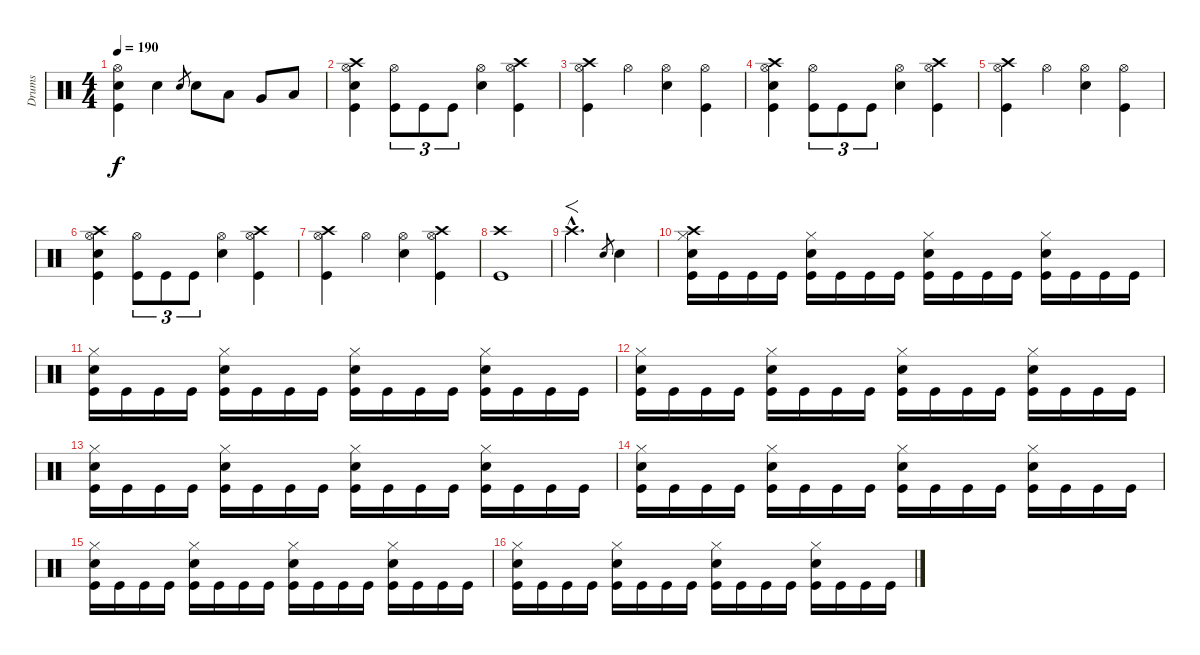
\track ("Drums" "Drums") {instrument percussion}
\staff {score}
\articulation defaults
\ts (4 4)
\tempo 190
\clef neutral
\ks c
("Hi-Hat (open)" "Snare (hit) 2" "Kick (hit)").4{dy f} "Snare (hit) 2".4 "Snare (hit) 2".8{gr} "Snare (hit) 2".8 "Low Tom (hit)".8 "Very Low Tom (hit)".8 "Low Floor Tom (hit)".8 |
("Crash high (hit)" "Hi-Hat (open)" "Snare (hit) 2" "Kick (hit)").4 ("Hi-Hat (open)" "Kick (hit)").8{tu (3 2)} "Kick (hit)".8{tu (3 2)} "Kick (hit)".8{tu (3 2)} ("Hi-Hat (open)" "Snare (hit) 2").4 ("Crash high (hit)" "Hi-Hat (open)" "Kick (hit)").4 |
("Crash high (hit)" "Hi-Hat (open)" "Kick (hit)").4 "Hi-Hat (open)".4 ("Hi-Hat (open)" "Snare (hit) 2").4 ("Hi-Hat (open)" "Kick (hit)").4 |
("Crash high (hit)" "Hi-Hat (open)" "Snare (hit) 2" "Kick (hit)").4 ("Hi-Hat (open)" "Kick (hit)").8{tu (3 2)} "Kick (hit)".8{tu (3 2)} "Kick (hit)".8{tu (3 2)} ("Hi-Hat (open)" "Snare (hit) 2").4 ("Crash high (hit)" "Hi-Hat (open)" "Kick (hit)").4 |
("Crash high (hit)" "Hi-Hat (open)" "Kick (hit)").4 "Hi-Hat (open)".4 ("Hi-Hat (open)" "Snare (hit) 2").4 ("Hi-Hat (open)" "Kick (hit)").4 |
("Crash high (hit)" "Hi-Hat (open)" "Snare (hit) 2" "Kick (hit)").4 ("Hi-Hat (open)" "Kick (hit)").8{tu (3 2)} "Kick (hit)".8{tu (3 2)} "Kick (hit)".8{tu (3 2)} ("Hi-Hat (open)" "Snare (hit) 2").4 ("Crash high (hit)" "Hi-Hat (open)" "Kick (hit)").4 |
("Crash high (hit)" "Hi-Hat (open)" "Kick (hit)").4 "Hi-Hat (open)".4 ("Hi-Hat (open)" "Snare (hit) 2").4 ("Crash high (hit)" "Hi-Hat (open)" "Kick (hit)").4 |
("Crash high (hit)" "Kick (hit)").1 |
"Crash high (hit)"{hac}.2{f d} "Snare (hit) 2".8{gr} "Snare (hit) 2".4 |
("Crash high (hit)" "Hi-Hat (closed)" "Snare (hit) 2" "Kick (hit)").16 "Kick (hit)".16 "Kick (hit)".16 "Kick (hit)".16 ("Hi-Hat (closed)" "Snare (hit) 2" "Kick (hit)").16 "Kick (hit)".16 "Kick (hit)".16 "Kick (hit)".16 ("Hi-Hat (closed)" "Snare (hit) 2" "Kick (hit)").16 "Kick (hit)".16 "Kick (hit)".16 "Kick (hit)".16 ("Hi-Hat (closed)" "Snare (hit) 2" "Kick (hit)").16 "Kick (hit)".16 "Kick (hit)".16 "Kick (hit)".16 |
("Hi-Hat (closed)" "Snare (hit) 2" "Kick (hit)").16 "Kick (hit)".16 "Kick (hit)".16 "Kick (hit)".16 ("Hi-Hat (closed)" "Snare (hit) 2" "Kick (hit)").16 "Kick (hit)".16 "Kick (hit)".16 "Kick (hit)".16 ("Hi-Hat (closed)" "Snare (hit) 2" "Kick (hit)").16 "Kick (hit)".16 "Kick (hit)".16 "Kick (hit)".16 ("Hi-Hat (closed)" "Snare (hit) 2" "Kick (hit)").16 "Kick (hit)".16 "Kick (hit)".16 "Kick (hit)".16 |
("Hi-Hat (closed)" "Snare (hit) 2" "Kick (hit)").16 "Kick (hit)".16 "Kick (hit)".16 "Kick (hit)".16 ("Hi-Hat (closed)" "Snare (hit) 2" "Kick (hit)").16 "Kick (hit)".16 "Kick (hit)".16 "Kick (hit)".16 ("Hi-Hat (closed)" "Snare (hit) 2" "Kick (hit)").16 "Kick (hit)".16 "Kick (hit)".16 "Kick (hit)".16 ("Hi-Hat (closed)" "Snare (hit) 2" "Kick (hit)").16 "Kick (hit)".16 "Kick (hit)".16 "Kick (hit)".16 |
("Hi-Hat (closed)" "Snare (hit) 2" "Kick (hit)").16 "Kick (hit)".16 "Kick (hit)".16 "Kick (hit)".16 ("Hi-Hat (closed)" "Snare (hit) 2" "Kick (hit)").16 "Kick (hit)".16 "Kick (hit)".16 "Kick (hit)".16 ("Hi-Hat (closed)" "Snare (hit) 2" "Kick (hit)").16 "Kick (hit)".16 "Kick (hit)".16 "Kick (hit)".16 ("Hi-Hat (closed)" "Snare (hit) 2" "Kick (hit)").16 "Kick (hit)".16 "Kick (hit)".16 "Kick (hit)".16 |
("Hi-Hat (closed)" "Snare (hit) 2" "Kick (hit)").16 "Kick (hit)".16 "Kick (hit)".16 "Kick (hit)".16 ("Hi-Hat (closed)" "Snare (hit) 2" "Kick (hit)").16 "Kick (hit)".16 "Kick (hit)".16 "Kick (hit)".16 ("Hi-Hat (closed)" "Snare (hit) 2" "Kick (hit)").16 "Kick (hit)".16 "Kick (hit)".16 "Kick (hit)".16 ("Hi-Hat (closed)" "Snare (hit) 2" "Kick (hit)").16 "Kick (hit)".16 "Kick (hit)".16 "Kick (hit)".16 |
("Hi-Hat (closed)" "Snare (hit) 2" "Kick (hit)").16 "Kick (hit)".16 "Kick (hit)".16 "Kick (hit)".16 ("Hi-Hat (closed)" "Snare (hit) 2" "Kick (hit)").16 "Kick (hit)".16 "Kick (hit)".16 "Kick (hit)".16 ("Hi-Hat (closed)" "Snare (hit) 2" "Kick (hit)").16 "Kick (hit)".16 "Kick (hit)".16 "Kick (hit)".16 ("Hi-Hat (closed)" "Snare (hit) 2" "Kick (hit)").16 "Kick (hit)".16 "Kick (hit)".16 "Kick (hit)".16 |
("Hi-Hat (closed)" "Snare (hit) 2" "Kick (hit)").16 "Kick (hit)".16 "Kick (hit)".16 "Kick (hit)".16 ("Hi-Hat (closed)" "Snare (hit) 2" "Kick (hit)").16 "Kick (hit)".16 "Kick (hit)".16 "Kick (hit)".16 ("Hi-Hat (closed)" "Snare (hit) 2" "Kick (hit)").16 "Kick (hit)".16 "Kick (hit)".16 "Kick (hit)".16 ("Hi-Hat (closed)" "Snare (hit) 2" "Kick (hit)").16 "Kick (hit)".16 "Kick (hit)".16 "Kick (hit)".16
